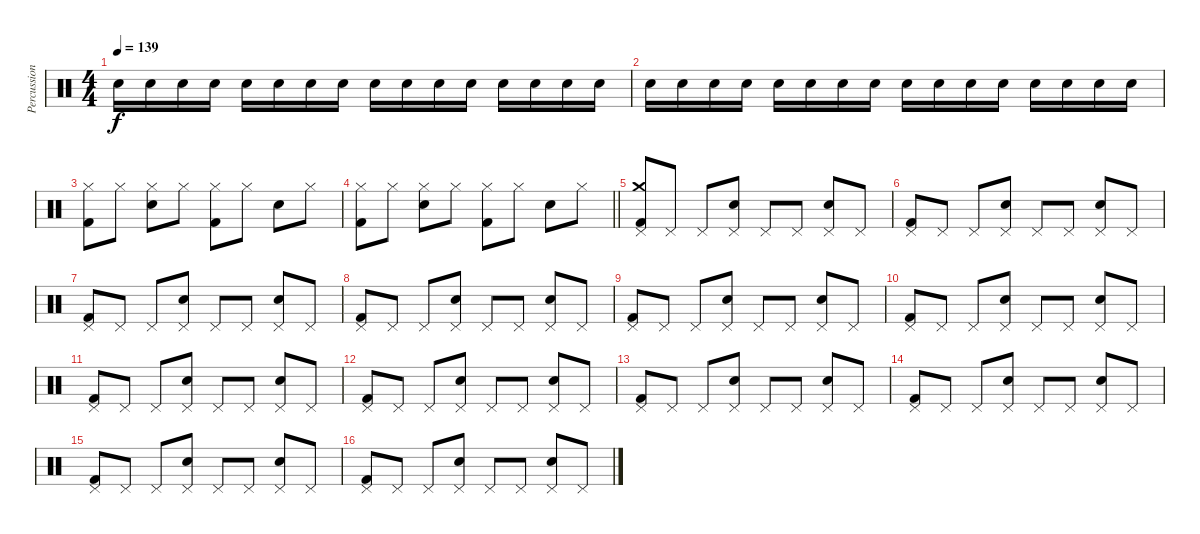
\track ("Percussion" "Percussion") {instrument percussion}
\staff {score}
\articulation defaults
\ts (4 4)
\tempo 139
\clef neutral
\ks c "Snare (hit) 2".16{dy f volume 7} "Snare (hit) 2".16 "Snare (hit) 2".16 "Snare (hit) 2".16 "Snare (hit) 2".16 "Snare (hit) 2".16 "Snare (hit) 2".16 "Snare (hit) 2".16{volume 13} "Snare (hit) 2".16 "Snare (hit) 2".16 "Snare (hit) 2".16 "Snare (hit) 2".16 "Snare (hit) 2".16 "Snare (hit) 2".16 "Snare (hit) 2".16 "Snare (hit) 2".16
|
"Snare (hit) 2".16 "Snare (hit) 2".16 "Snare (hit) 2".16 "Snare (hit) 2".16 "Snare (hit) 2".16 "Snare (hit) 2".16 "Snare (hit) 2".16 "Snare (hit) 2".16 "Snare (hit) 2".16 "Snare (hit) 2".16 "Snare (hit) 2".16 "Snare (hit) 2".16 "Snare (hit) 2".16 "Snare (hit) 2".16 "Snare (hit) 2".16 "Snare (hit) 2".16 |
("Kick (hit) 2" "Hi-Hat (closed)").8 "Hi-Hat (closed)".8 ("Snare (hit) 2" "Hi-Hat (closed)").8 "Hi-Hat (closed)".8 ("Kick (hit) 2" "Hi-Hat (closed)").8 "Hi-Hat (closed)".8 "Snare (hit) 2".8 "Hi-Hat (closed)".8 |
\barLineRight lightlight
("Kick (hit) 2" "Hi-Hat (closed)").8 "Hi-Hat (closed)".8 ("Snare (hit) 2" "Hi-Hat (closed)").8 "Hi-Hat (closed)".8 ("Kick (hit) 2" "Hi-Hat (closed)").8 "Hi-Hat (closed)".8 "Snare (hit) 2".8 "Hi-Hat (closed)".8 |
("Crash medium (hit)" "Pedal Hi-Hat (hit)" "Kick (hit) 2").8 "Pedal Hi-Hat (hit)".8 "Pedal Hi-Hat (hit)".8 ("Snare (hit) 2" "Pedal Hi-Hat (hit)").8 "Pedal Hi-Hat (hit)".8 "Pedal Hi-Hat (hit)".8 ("Snare (hit) 2" "Pedal Hi-Hat (hit)").8 "Pedal Hi-Hat (hit)".8 |
("Pedal Hi-Hat (hit)" "Kick (hit) 2").8 "Pedal Hi-Hat (hit)".8 "Pedal Hi-Hat (hit)".8 ("Snare (hit) 2" "Pedal Hi-Hat (hit)").8 "Pedal Hi-Hat (hit)".8 "Pedal Hi-Hat (hit)".8 ("Snare (hit) 2" "Pedal Hi-Hat (hit)").8 "Pedal Hi-Hat (hit)".8 |
("Pedal Hi-Hat (hit)" "Kick (hit) 2").8 "Pedal Hi-Hat (hit)".8 "Pedal Hi-Hat (hit)".8 ("Snare (hit) 2" "Pedal Hi-Hat (hit)").8 "Pedal Hi-Hat (hit)".8 "Pedal Hi-Hat (hit)".8 ("Snare (hit) 2" "Pedal Hi-Hat (hit)").8 "Pedal Hi-Hat (hit)".8 |
("Pedal Hi-Hat (hit)" "Kick (hit) 2").8 "Pedal Hi-Hat (hit)".8 "Pedal Hi-Hat (hit)".8 ("Snare (hit) 2" "Pedal Hi-Hat (hit)").8 "Pedal Hi-Hat (hit)".8 "Pedal Hi-Hat (hit)".8 ("Snare (hit) 2" "Pedal Hi-Hat (hit)").8 "Pedal Hi-Hat (hit)".8 |
("Pedal Hi-Hat (hit)" "Kick (hit) 2").8 "Pedal Hi-Hat (hit)".8 "Pedal Hi-Hat (hit)".8 ("Snare (hit) 2" "Pedal Hi-Hat (hit)").8 "Pedal Hi-Hat (hit)".8 "Pedal Hi-Hat (hit)".8 ("Snare (hit) 2" "Pedal Hi-Hat (hit)").8 "Pedal Hi-Hat (hit)".8 |
("Pedal Hi-Hat (hit)" "Kick (hit) 2").8 "Pedal Hi-Hat (hit)".8 "Pedal Hi-Hat (hit)".8 ("Snare (hit) 2" "Pedal Hi-Hat (hit)").8 "Pedal Hi-Hat (hit)".8 "Pedal Hi-Hat (hit)".8 ("Snare (hit) 2" "Pedal Hi-Hat (hit)").8 "Pedal Hi-Hat (hit)".8 |
("Pedal Hi-Hat (hit)" "Kick (hit) 2").8 "Pedal Hi-Hat (hit)".8 "Pedal Hi-Hat (hit)".8 ("Snare (hit) 2" "Pedal Hi-Hat (hit)").8 "Pedal Hi-Hat (hit)".8 "Pedal Hi-Hat (hit)".8 ("Snare (hit) 2" "Pedal Hi-Hat (hit)").8 "Pedal Hi-Hat (hit)".8 |
("Pedal Hi-Hat (hit)" "Kick (hit) 2").8 "Pedal Hi-Hat (hit)".8 "Pedal Hi-Hat (hit)".8 ("Snare (hit) 2" "Pedal Hi-Hat (hit)").8 "Pedal Hi-Hat (hit)".8 "Pedal Hi-Hat (hit)".8 ("Snare (hit) 2" "Pedal Hi-Hat (hit)").8 "Pedal Hi-Hat (hit)".8 |
("Pedal Hi-Hat (hit)" "Kick (hit) 2").8 "Pedal Hi-Hat (hit)".8 "Pedal Hi-Hat (hit)".8 ("Snare (hit) 2" "Pedal Hi-Hat (hit)").8 "Pedal Hi-Hat (hit)".8 "Pedal Hi-Hat (hit)".8 ("Snare (hit) 2" "Pedal Hi-Hat (hit)").8 "Pedal Hi-Hat (hit)".8 |
("Pedal Hi-Hat (hit)" "Kick (hit) 2").8 "Pedal Hi-Hat (hit)".8 "Pedal Hi-Hat (hit)".8 ("Snare (hit) 2" "Pedal Hi-Hat (hit)").8 "Pedal Hi-Hat (hit)".8 "Pedal Hi-Hat (hit)".8 ("Snare (hit) 2" "Pedal Hi-Hat (hit)").8 "Pedal Hi-Hat (hit)".8 |
("Pedal Hi-Hat (hit)" "Kick (hit) 2").8 "Pedal Hi-Hat (hit)".8 "Pedal Hi-Hat (hit)".8 ("Snare (hit) 2" "Pedal Hi-Hat (hit)").8 "Pedal Hi-Hat (hit)".8 "Pedal Hi-Hat (hit)".8 ("Snare (hit) 2" "Pedal Hi-Hat (hit)").8 "Pedal Hi-Hat (hit)".8 |
("Pedal Hi-Hat (hit)" "Kick (hit) 2").8 "Pedal Hi-Hat (hit)".8 "Pedal Hi-Hat (hit)".8 ("Snare (hit) 2" "Pedal Hi-Hat (hit)").8 "Pedal Hi-Hat (hit)".8 "Pedal Hi-Hat (hit)".8 ("Snare (hit) 2" "Pedal Hi-Hat (hit)").8 "Pedal Hi-Hat (hit)".8
